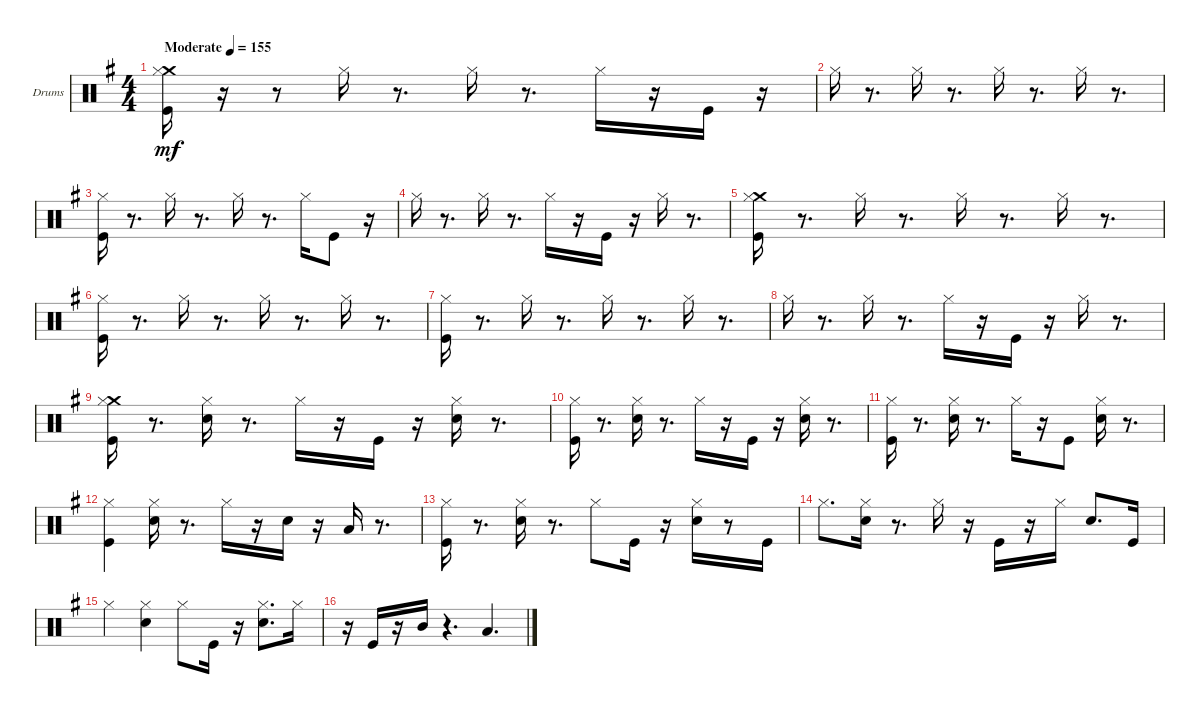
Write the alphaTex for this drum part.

\bracketExtendMode groupsimilarinstruments
\firstSystemTrackNameOrientation horizontal
\otherSystemsTrackNameOrientation horizontal
\track ("Drumkit" "Drums") {instrument percussion}
\staff {score}
\articulation defaults
\ts (4 4)
\beaming (8 2 2 2 2)
\tempo (155 "Moderate")
\clef neutral
\scale
0.502183
\ks g
("Crash medium (hit)" "Hi-Hat (closed)" "Kick (hit)").16{dy mf} r.16 r.8 "Hi-Hat (closed)".16 r.8{d} "Hi-Hat (closed)".16 r.8{d} "Hi-Hat (closed)".16 r.16 "Kick (hit)".16 r.16 |
\scale
0.248908 "Hi-Hat (closed)".16 r.8{d} "Hi-Hat (closed)".16 r.8{d} "Hi-Hat (closed)".16 r.8{d} "Hi-Hat (closed)".16 r.8{d} |
\scale
0.248908 ("Kick (hit)" "Hi-Hat (closed)").16 r.8{d} "Hi-Hat (closed)".16 r.8{d} "Hi-Hat (closed)".16 r.8{d} "Hi-Hat (closed)".16 "Kick (hit)".8 r.16 |
\scale
0.333333 "Hi-Hat (closed)".16 r.8{d} "Hi-Hat (closed)".16 r.8{d} "Hi-Hat (closed)".16 r.16 "Kick (hit)".16 r.16 "Hi-Hat (closed)".16 r.8{d} |
\scale
0.333333 ("Crash medium (hit)" "Kick (hit)" "Hi-Hat (closed)").16 r.8{d} "Hi-Hat (closed)".16 r.8{d} "Hi-Hat (closed)".16 r.8{d} "Hi-Hat (closed)".16 r.8{d} |
\scale
0.333333 ("Kick (hit)" "Hi-Hat (closed)").16 r.8{d} "Hi-Hat (closed)".16 r.8{d} "Hi-Hat (closed)".16 r.8{d} "Hi-Hat (closed)".16 r.8{d} |
\scale
0.333333 ("Kick (hit)" "Hi-Hat (closed)").16 r.8{d} "Hi-Hat (closed)".16 r.8{d} "Hi-Hat (closed)".16 r.8{d} "Hi-Hat (closed)".16 r.8{d} |
\scale
0.333333 "Hi-Hat (closed)".16 r.8{d} "Hi-Hat (closed)".16 r.8{d} "Hi-Hat (closed)".16 r.16 "Kick (hit)".16 r.16 "Hi-Hat (closed)".16 r.8{d} |
\scale
0.333333 ("Crash medium (hit)" "Kick (hit)" "Hi-Hat (closed)").16 r.8{d} ("Hi-Hat (closed)" "Snare (hit) 2").16 r.8{d} "Hi-Hat (closed)".16 r.16 "Kick (hit)".16 r.16 ("Hi-Hat (closed)" "Snare (hit) 2").16 r.8{d} |
\scale
0.333333 ("Hi-Hat (closed)" "Kick (hit)").16 r.8{d} ("Snare (hit) 2" "Hi-Hat (closed)").16 r.8{d} "Hi-Hat (closed)".16 r.16 "Kick (hit)".16 r.16 ("Snare (hit) 2" "Hi-Hat (closed)").16 r.8{d} |
\scale
0.333333 ("Kick (hit)" "Hi-Hat (closed)").16 r.8{d} ("Snare (hit) 2" "Hi-Hat (closed)").16 r.8{d} "Hi-Hat (closed)".16 r.16 "Kick (hit)".8 ("Hi-Hat (closed)" "Snare (hit) 2").16 r.8{d} |
\scale
0.333333 ("Hi-Hat (closed)" "Kick (hit)").4 ("Snare (hit) 2" "Hi-Hat (closed)").16 r.8{d} "Hi-Hat (closed)".16 r.16 "Snare (hit) 2".16 r.16 "Low Tom (hit)".16 r.8{d} |
\scale
0.333333 ("Kick (hit)" "Hi-Hat (closed)").16 r.8{d} ("Snare (hit) 2" "Hi-Hat (closed)").16 r.8{d} "Hi-Hat (closed)".8 "Kick (hit)".16 r.16 ("Hi-Hat (closed)" "Snare (hit) 2").16 r.8 "Kick (hit)".16 |
\scale
0.333333 "Hi-Hat (closed)".8{d} ("Hi-Hat (closed)" "Snare (hit) 2").16 r.8{d} "Hi-Hat (closed)".16 r.16 "Kick (hit)".16 r.16 "Hi-Hat (closed)".16 "Snare (hit) 2".8{d} "Kick (hit)".16 |
\scale
0.333333 "Hi-Hat (closed)".4 ("Snare (hit) 2" "Hi-Hat (closed)").4 "Hi-Hat (closed)".8 "Kick (hit)".16 r.16 ("Hi-Hat (closed)" "Snare (hit) 2").8{d} "Hi-Hat (closed)".16 |
\scale
0.333333 r.16 "Kick (hit)".16 r.16 "Mid Tom (hit)".16 r.4{d} "Low Tom (hit)".4{d}
